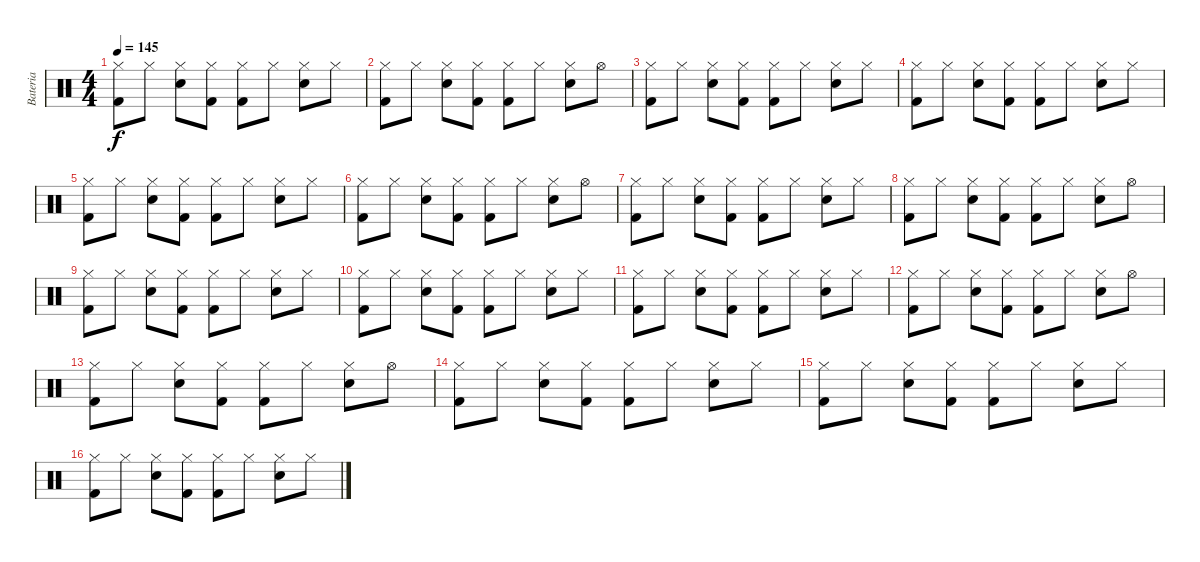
\track ("Bateria" "Bateria") {instrument percussion}
\staff {score}
\articulation defaults
\ts (4 4)
\tempo 145
\clef neutral
\ks c
("Hi-Hat (closed)" "Kick (hit) 2").8{dy f} "Hi-Hat (closed)".8 ("Hi-Hat (closed)" "Electric Snare (hit)").8 ("Hi-Hat (closed)" "Kick (hit) 2").8 ("Hi-Hat (closed)" "Kick (hit) 2").8 "Hi-Hat (closed)".8 ("Hi-Hat (closed)" "Electric Snare (hit)").8 "Hi-Hat (closed)".8 |
("Hi-Hat (closed)" "Kick (hit) 2").8 "Hi-Hat (closed)".8 ("Hi-Hat (closed)" "Electric Snare (hit)").8 ("Hi-Hat (closed)" "Kick (hit) 2").8 ("Hi-Hat (closed)" "Kick (hit) 2").8 "Hi-Hat (closed)".8 ("Hi-Hat (closed)" "Electric Snare (hit)").8 "Hi-Hat (open)".8 |
("Hi-Hat (closed)" "Kick (hit) 2").8 "Hi-Hat (closed)".8 ("Hi-Hat (closed)" "Electric Snare (hit)").8 ("Hi-Hat (closed)" "Kick (hit) 2").8 ("Hi-Hat (closed)" "Kick (hit) 2").8 "Hi-Hat (closed)".8 ("Hi-Hat (closed)" "Electric Snare (hit)").8 "Hi-Hat (closed)".8 |
("Hi-Hat (closed)" "Kick (hit) 2").8 "Hi-Hat (closed)".8 ("Hi-Hat (closed)" "Electric Snare (hit)").8 ("Hi-Hat (closed)" "Kick (hit) 2").8 ("Hi-Hat (closed)" "Kick (hit) 2").8 "Hi-Hat (closed)".8 ("Hi-Hat (closed)" "Electric Snare (hit)").8 "Hi-Hat (closed)".8 |
("Hi-Hat (closed)" "Kick (hit) 2").8 "Hi-Hat (closed)".8 ("Hi-Hat (closed)" "Electric Snare (hit)").8 ("Hi-Hat (closed)" "Kick (hit) 2").8 ("Hi-Hat (closed)" "Kick (hit) 2").8 "Hi-Hat (closed)".8 ("Hi-Hat (closed)" "Electric Snare (hit)").8 "Hi-Hat (closed)".8 |
("Hi-Hat (closed)" "Kick (hit) 2").8 "Hi-Hat (closed)".8 ("Hi-Hat (closed)" "Electric Snare (hit)").8 ("Hi-Hat (closed)" "Kick (hit) 2").8 ("Hi-Hat (closed)" "Kick (hit) 2").8 "Hi-Hat (closed)".8 ("Hi-Hat (closed)" "Electric Snare (hit)").8 "Hi-Hat (open)".8 |
("Hi-Hat (closed)" "Kick (hit) 2").8 "Hi-Hat (closed)".8 ("Hi-Hat (closed)" "Electric Snare (hit)").8 ("Hi-Hat (closed)" "Kick (hit) 2").8 ("Hi-Hat (closed)" "Kick (hit) 2").8 "Hi-Hat (closed)".8 ("Hi-Hat (closed)" "Electric Snare (hit)").8 "Hi-Hat (closed)".8 |
("Hi-Hat (closed)" "Kick (hit) 2").8 "Hi-Hat (closed)".8 ("Hi-Hat (closed)" "Electric Snare (hit)").8 ("Hi-Hat (closed)" "Kick (hit) 2").8 ("Hi-Hat (closed)" "Kick (hit) 2").8 "Hi-Hat (closed)".8 ("Hi-Hat (closed)" "Electric Snare (hit)").8 "Hi-Hat (open)".8 |
("Hi-Hat (closed)" "Kick (hit) 2").8 "Hi-Hat (closed)".8 ("Hi-Hat (closed)" "Electric Snare (hit)").8 ("Hi-Hat (closed)" "Kick (hit) 2").8 ("Hi-Hat (closed)" "Kick (hit) 2").8 "Hi-Hat (closed)".8 ("Hi-Hat (closed)" "Electric Snare (hit)").8 "Hi-Hat (closed)".8 |
("Hi-Hat (closed)" "Kick (hit) 2").8 "Hi-Hat (closed)".8 ("Hi-Hat (closed)" "Electric Snare (hit)").8 ("Hi-Hat (closed)" "Kick (hit) 2").8 ("Hi-Hat (closed)" "Kick (hit) 2").8 "Hi-Hat (closed)".8 ("Hi-Hat (closed)" "Electric Snare (hit)").8 "Hi-Hat (closed)".8 |
("Hi-Hat (closed)" "Kick (hit) 2").8 "Hi-Hat (closed)".8 ("Hi-Hat (closed)" "Electric Snare (hit)").8 ("Hi-Hat (closed)" "Kick (hit) 2").8 ("Hi-Hat (closed)" "Kick (hit) 2").8 "Hi-Hat (closed)".8 ("Hi-Hat (closed)" "Electric Snare (hit)").8 "Hi-Hat (closed)".8 |
("Hi-Hat (closed)" "Kick (hit) 2").8 "Hi-Hat (closed)".8 ("Hi-Hat (closed)" "Electric Snare (hit)").8 ("Hi-Hat (closed)" "Kick (hit) 2").8 ("Hi-Hat (closed)" "Kick (hit) 2").8 "Hi-Hat (closed)".8 ("Hi-Hat (closed)" "Electric Snare (hit)").8 "Hi-Hat (open)".8 |
("Hi-Hat (closed)" "Kick (hit) 2").8 "Hi-Hat (closed)".8 ("Hi-Hat (closed)" "Electric Snare (hit)").8 ("Hi-Hat (closed)" "Kick (hit) 2").8 ("Hi-Hat (closed)" "Kick (hit) 2").8 "Hi-Hat (closed)".8 ("Hi-Hat (closed)" "Electric Snare (hit)").8 "Hi-Hat (open)".8 |
("Hi-Hat (closed)" "Kick (hit) 2").8 "Hi-Hat (closed)".8 ("Hi-Hat (closed)" "Electric Snare (hit)").8 ("Hi-Hat (closed)" "Kick (hit) 2").8 ("Hi-Hat (closed)" "Kick (hit) 2").8 "Hi-Hat (closed)".8 ("Hi-Hat (closed)" "Electric Snare (hit)").8 "Hi-Hat (closed)".8 |
("Hi-Hat (closed)" "Kick (hit) 2").8 "Hi-Hat (closed)".8 ("Hi-Hat (closed)" "Electric Snare (hit)").8 ("Hi-Hat (closed)" "Kick (hit) 2").8 ("Hi-Hat (closed)" "Kick (hit) 2").8 "Hi-Hat (closed)".8 ("Hi-Hat (closed)" "Electric Snare (hit)").8 "Hi-Hat (closed)".8 |
("Hi-Hat (closed)" "Kick (hit) 2").8 "Hi-Hat (closed)".8 ("Hi-Hat (closed)" "Electric Snare (hit)").8 ("Hi-Hat (closed)" "Kick (hit) 2").8 ("Hi-Hat (closed)" "Kick (hit) 2").8 "Hi-Hat (closed)".8 ("Hi-Hat (closed)" "Electric Snare (hit)").8 "Hi-Hat (closed)".8
